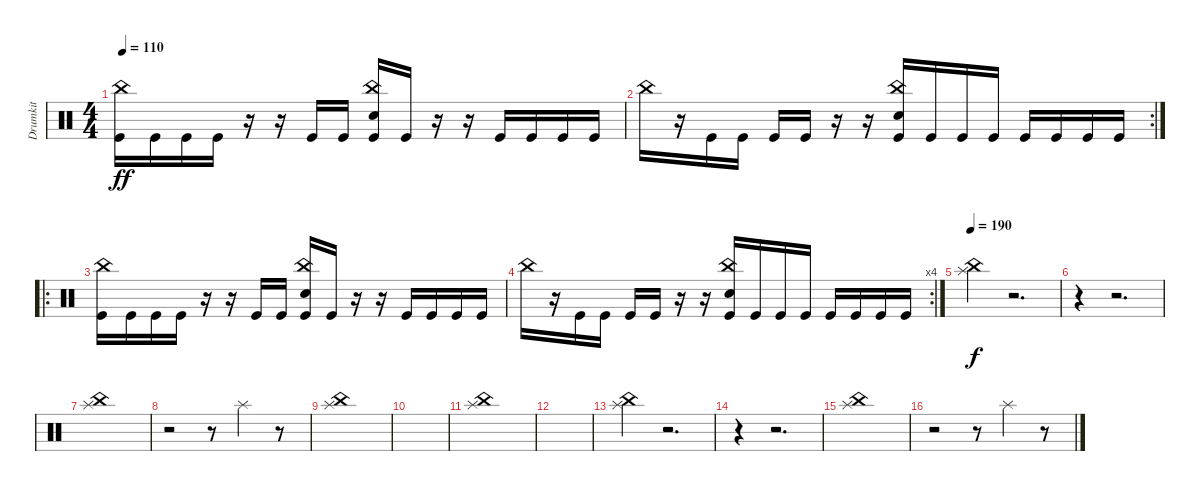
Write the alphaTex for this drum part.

\track ("Drumkit" "Drumkit") {instrument percussion}
\staff {score}
\articulation defaults
\ts (4 4)
\tempo 110
\clef neutral
\ks c
("Kick (hit)" "China (hit)").16{dy ff} "Kick (hit)".16 "Kick (hit)".16 "Kick (hit)".16 r.16 r.16 "Kick (hit)".16 "Kick (hit)".16 ("Kick (hit)" "China (hit)" "Snare (hit) 2").16 "Kick (hit)".16 r.16 r.16 "Kick (hit)".16 "Kick (hit)".16 "Kick (hit)".16 "Kick (hit)".16 |
\rc 2 "China (hit)".16
r.16 "Kick (hit)".16 "Kick (hit)".16 "Kick (hit)".16 "Kick (hit)".16 r.16 r.16 ("Kick (hit)" "China (hit)" "Snare (hit) 2").16 "Kick (hit)".16 "Kick (hit)".16 "Kick (hit)".16 "Kick (hit)".16 "Kick (hit)".16 "Kick (hit)".16 "Kick (hit)".16 |
\ro
("Kick (hit)" "China (hit)").16 "Kick (hit)".16 "Kick (hit)".16 "Kick (hit)".16 r.16 r.16 "Kick (hit)".16 "Kick (hit)".16 ("Kick (hit)" "China (hit)" "Snare (hit) 2").16 "Kick (hit)".16 r.16 r.16 "Kick (hit)".16 "Kick (hit)".16 "Kick (hit)".16 "Kick (hit)".16 |
\rc 4 "China (hit)".16
r.16 "Kick (hit)".16 "Kick (hit)".16 "Kick (hit)".16 "Kick (hit)".16 r.16 r.16 ("Kick (hit)" "China (hit)" "Snare (hit) 2").16 "Kick (hit)".16 "Kick (hit)".16 "Kick (hit)".16 "Kick (hit)".16 "Kick (hit)".16 "Kick (hit)".16 "Kick (hit)".16 |
\tempo 190
("Splash (hit)" "China (hit)").4{dy f} r.2{d} |
r.4 r.2{d} |
("China (hit)" "Splash (hit)").1 |
r.2 r.8 "Splash (hit)".4 r.8 |
("China (hit)" "Splash (hit)").1 |
|
("China (hit)" "Splash (hit)").1 |
|
("Splash (hit)" "China (hit)").4 r.2{d} |
r.4 r.2{d} |
("China (hit)" "Splash (hit)").1 |
r.2 r.8 "Splash (hit)".4 r.8
